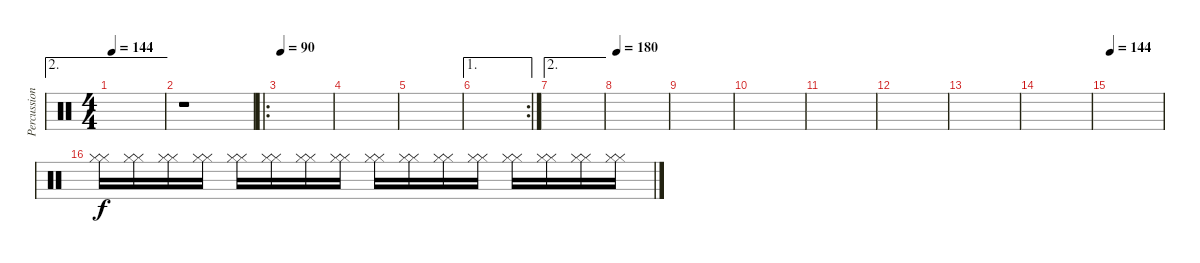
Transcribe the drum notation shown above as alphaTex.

\track ("Percussion 3" "Percussion") {instrument percussion}
\staff {score}
\articulation defaults
\ae 2
\ts (4 4)
\tempo 144
\clef neutral
\ks c
|
r.1 |
\ro
\tempo 90
|
|
|
\ae 1
\rc 2
|
\ae 2
|
\tempo 180
|
|
|
|
|
|
|
\tempo 144
|
("Hi-Hat (closed)" "Hi-Hat (closed)").16 ("Hi-Hat (closed)" "Hi-Hat (closed)").16 ("Hi-Hat (closed)" "Hi-Hat (closed)").16 ("Hi-Hat (closed)" "Hi-Hat (closed)").16 ("Hi-Hat (closed)" "Hi-Hat (closed)").16 ("Hi-Hat (closed)" "Hi-Hat (closed)").16 ("Hi-Hat (closed)" "Hi-Hat (closed)").16 ("Hi-Hat (closed)" "Hi-Hat (closed)").16 ("Hi-Hat (closed)" "Hi-Hat (closed)").16 ("Hi-Hat (closed)" "Hi-Hat (closed)").16 ("Hi-Hat (closed)" "Hi-Hat (closed)").16 ("Hi-Hat (closed)" "Hi-Hat (closed)").16 ("Hi-Hat (closed)" "Hi-Hat (closed)").16 ("Hi-Hat (closed)" "Hi-Hat (closed)").16 ("Hi-Hat (closed)" "Hi-Hat (closed)").16 ("Hi-Hat (closed)" "Hi-Hat (closed)").16
